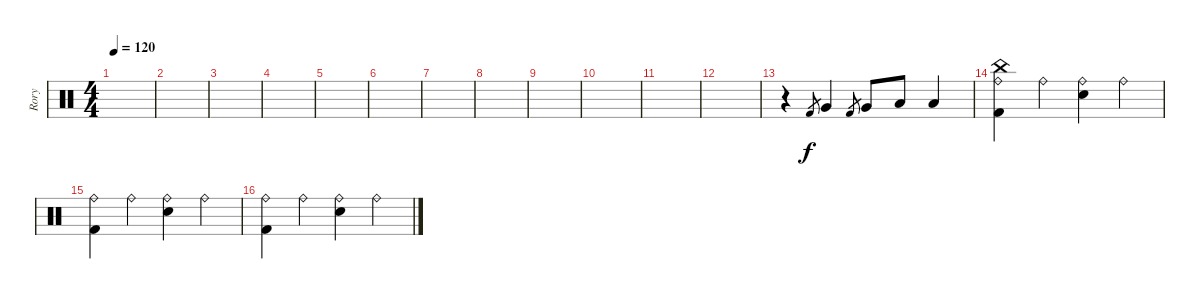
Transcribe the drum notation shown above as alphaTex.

\track ("Rory" "Rory") {instrument percussion}
\staff {score}
\articulation defaults
\ts (4 4)
\tempo 120
\clef neutral
\ks c
|
|
|
|
|
|
|
|
|
|
|
|
r.4 "Kick (hit) 2".8{gr} "Very Low Tom (hit)".4 "Kick (hit) 2".8{gr} "Very Low Tom (hit)".8 "Low Floor Tom (hit)".8 "Low Floor Tom (hit)".4 |
("Kick (hit) 2" "Ride (bell)" "China (hit)").4 "Ride (bell)".4 ("Ride (bell)" "Electric Snare (hit)").4 "Ride (bell)".4 |
("Kick (hit) 2" "Ride (bell)").4 "Ride (bell)".4 ("Ride (bell)" "Electric Snare (hit)").4 "Ride (bell)".4 |
("Kick (hit) 2" "Ride (bell)").4 "Ride (bell)".4 ("Ride (bell)" "Electric Snare (hit)").4 "Ride (bell)".4
